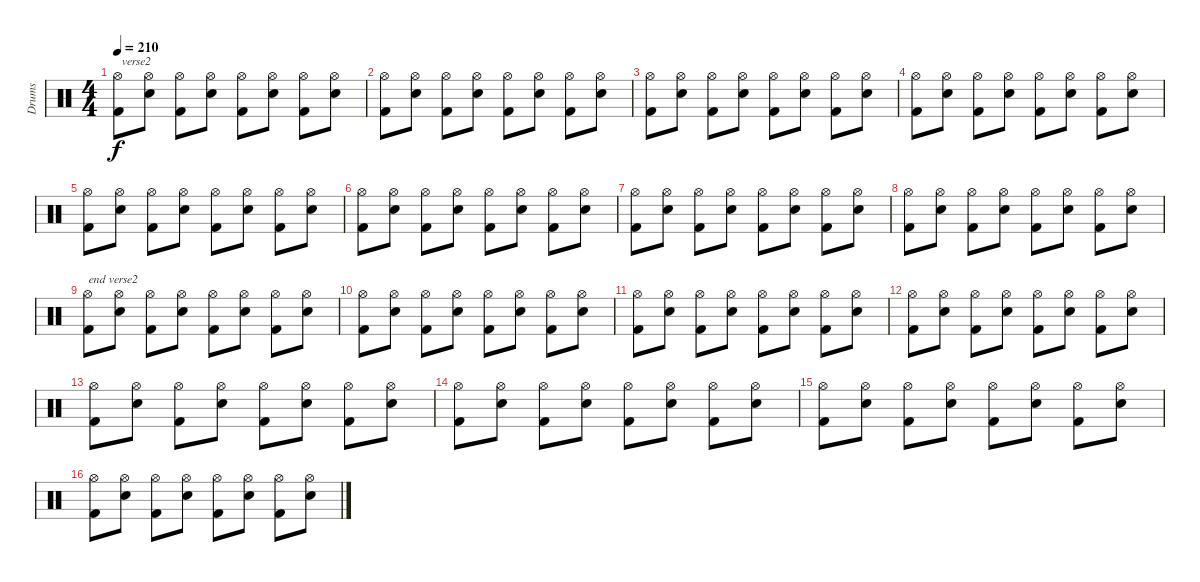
\track ("Drums" "Drums") {instrument percussion}
\staff {score}
\articulation defaults
\ts (4 4)
\tempo 210
\clef neutral
\ks c
("Kick (hit) 2" "Hi-Hat (open)").8{txt " verse2" dy f} ("Snare (hit) 2" "Hi-Hat (open)").8 ("Kick (hit) 2" "Hi-Hat (open)").8 ("Snare (hit) 2" "Hi-Hat (open)").8 ("Kick (hit) 2" "Hi-Hat (open)").8 ("Snare (hit) 2" "Hi-Hat (open)").8 ("Kick (hit) 2" "Hi-Hat (open)").8 ("Snare (hit) 2" "Hi-Hat (open)").8 |
("Kick (hit) 2" "Hi-Hat (open)").8 ("Snare (hit) 2" "Hi-Hat (open)").8 ("Kick (hit) 2" "Hi-Hat (open)").8 ("Snare (hit) 2" "Hi-Hat (open)").8 ("Kick (hit) 2" "Hi-Hat (open)").8 ("Snare (hit) 2" "Hi-Hat (open)").8 ("Kick (hit) 2" "Hi-Hat (open)").8 ("Snare (hit) 2" "Hi-Hat (open)").8 |
("Kick (hit) 2" "Hi-Hat (open)").8 ("Snare (hit) 2" "Hi-Hat (open)").8 ("Kick (hit) 2" "Hi-Hat (open)").8 ("Snare (hit) 2" "Hi-Hat (open)").8 ("Kick (hit) 2" "Hi-Hat (open)").8 ("Snare (hit) 2" "Hi-Hat (open)").8 ("Kick (hit) 2" "Hi-Hat (open)").8 ("Snare (hit) 2" "Hi-Hat (open)").8 |
("Kick (hit) 2" "Hi-Hat (open)").8 ("Snare (hit) 2" "Hi-Hat (open)").8 ("Kick (hit) 2" "Hi-Hat (open)").8 ("Snare (hit) 2" "Hi-Hat (open)").8 ("Kick (hit) 2" "Hi-Hat (open)").8 ("Snare (hit) 2" "Hi-Hat (open)").8 ("Kick (hit) 2" "Hi-Hat (open)").8 ("Snare (hit) 2" "Hi-Hat (open)").8 |
("Kick (hit) 2" "Hi-Hat (open)").8 ("Snare (hit) 2" "Hi-Hat (open)").8 ("Kick (hit) 2" "Hi-Hat (open)").8 ("Snare (hit) 2" "Hi-Hat (open)").8 ("Kick (hit) 2" "Hi-Hat (open)").8 ("Snare (hit) 2" "Hi-Hat (open)").8 ("Kick (hit) 2" "Hi-Hat (open)").8 ("Snare (hit) 2" "Hi-Hat (open)").8 |
("Kick (hit) 2" "Hi-Hat (open)").8 ("Snare (hit) 2" "Hi-Hat (open)").8 ("Kick (hit) 2" "Hi-Hat (open)").8 ("Snare (hit) 2" "Hi-Hat (open)").8 ("Kick (hit) 2" "Hi-Hat (open)").8 ("Snare (hit) 2" "Hi-Hat (open)").8 ("Kick (hit) 2" "Hi-Hat (open)").8 ("Snare (hit) 2" "Hi-Hat (open)").8 |
("Kick (hit) 2" "Hi-Hat (open)").8 ("Snare (hit) 2" "Hi-Hat (open)").8 ("Kick (hit) 2" "Hi-Hat (open)").8 ("Snare (hit) 2" "Hi-Hat (open)").8 ("Kick (hit) 2" "Hi-Hat (open)").8 ("Snare (hit) 2" "Hi-Hat (open)").8 ("Kick (hit) 2" "Hi-Hat (open)").8 ("Snare (hit) 2" "Hi-Hat (open)").8 |
("Kick (hit) 2" "Hi-Hat (open)").8 ("Snare (hit) 2" "Hi-Hat (open)").8 ("Kick (hit) 2" "Hi-Hat (open)").8 ("Snare (hit) 2" "Hi-Hat (open)").8 ("Kick (hit) 2" "Hi-Hat (open)").8 ("Snare (hit) 2" "Hi-Hat (open)").8 ("Kick (hit) 2" "Hi-Hat (open)").8 ("Snare (hit) 2" "Hi-Hat (open)").8 |
("Kick (hit) 2" "Hi-Hat (open)").8{txt "end verse2"} ("Snare (hit) 2" "Hi-Hat (open)").8 ("Kick (hit) 2" "Hi-Hat (open)").8 ("Snare (hit) 2" "Hi-Hat (open)").8 ("Kick (hit) 2" "Hi-Hat (open)").8 ("Snare (hit) 2" "Hi-Hat (open)").8 ("Kick (hit) 2" "Hi-Hat (open)").8 ("Snare (hit) 2" "Hi-Hat (open)").8 |
("Kick (hit) 2" "Hi-Hat (open)").8 ("Snare (hit) 2" "Hi-Hat (open)").8 ("Kick (hit) 2" "Hi-Hat (open)").8 ("Snare (hit) 2" "Hi-Hat (open)").8 ("Kick (hit) 2" "Hi-Hat (open)").8 ("Snare (hit) 2" "Hi-Hat (open)").8 ("Kick (hit) 2" "Hi-Hat (open)").8 ("Snare (hit) 2" "Hi-Hat (open)").8 |
("Kick (hit) 2" "Hi-Hat (open)").8 ("Snare (hit) 2" "Hi-Hat (open)").8 ("Kick (hit) 2" "Hi-Hat (open)").8 ("Snare (hit) 2" "Hi-Hat (open)").8 ("Kick (hit) 2" "Hi-Hat (open)").8 ("Snare (hit) 2" "Hi-Hat (open)").8 ("Kick (hit) 2" "Hi-Hat (open)").8 ("Snare (hit) 2" "Hi-Hat (open)").8 |
("Kick (hit) 2" "Hi-Hat (open)").8 ("Snare (hit) 2" "Hi-Hat (open)").8 ("Kick (hit) 2" "Hi-Hat (open)").8 ("Snare (hit) 2" "Hi-Hat (open)").8 ("Kick (hit) 2" "Hi-Hat (open)").8 ("Snare (hit) 2" "Hi-Hat (open)").8 ("Kick (hit) 2" "Hi-Hat (open)").8 ("Snare (hit) 2" "Hi-Hat (open)").8 |
("Kick (hit) 2" "Hi-Hat (open)").8 ("Snare (hit) 2" "Hi-Hat (open)").8 ("Kick (hit) 2" "Hi-Hat (open)").8 ("Snare (hit) 2" "Hi-Hat (open)").8 ("Kick (hit) 2" "Hi-Hat (open)").8 ("Snare (hit) 2" "Hi-Hat (open)").8 ("Kick (hit) 2" "Hi-Hat (open)").8 ("Snare (hit) 2" "Hi-Hat (open)").8 |
("Kick (hit) 2" "Hi-Hat (open)").8 ("Snare (hit) 2" "Hi-Hat (open)").8 ("Kick (hit) 2" "Hi-Hat (open)").8 ("Snare (hit) 2" "Hi-Hat (open)").8 ("Kick (hit) 2" "Hi-Hat (open)").8 ("Snare (hit) 2" "Hi-Hat (open)").8 ("Kick (hit) 2" "Hi-Hat (open)").8 ("Snare (hit) 2" "Hi-Hat (open)").8 |
("Kick (hit) 2" "Hi-Hat (open)").8 ("Snare (hit) 2" "Hi-Hat (open)").8 ("Kick (hit) 2" "Hi-Hat (open)").8 ("Snare (hit) 2" "Hi-Hat (open)").8 ("Kick (hit) 2" "Hi-Hat (open)").8 ("Snare (hit) 2" "Hi-Hat (open)").8 ("Kick (hit) 2" "Hi-Hat (open)").8 ("Snare (hit) 2" "Hi-Hat (open)").8 |
("Kick (hit) 2" "Hi-Hat (open)").8 ("Snare (hit) 2" "Hi-Hat (open)").8 ("Kick (hit) 2" "Hi-Hat (open)").8 ("Snare (hit) 2" "Hi-Hat (open)").8 ("Kick (hit) 2" "Hi-Hat (open)").8 ("Snare (hit) 2" "Hi-Hat (open)").8 ("Kick (hit) 2" "Hi-Hat (open)").8 ("Snare (hit) 2" "Hi-Hat (open)").8
